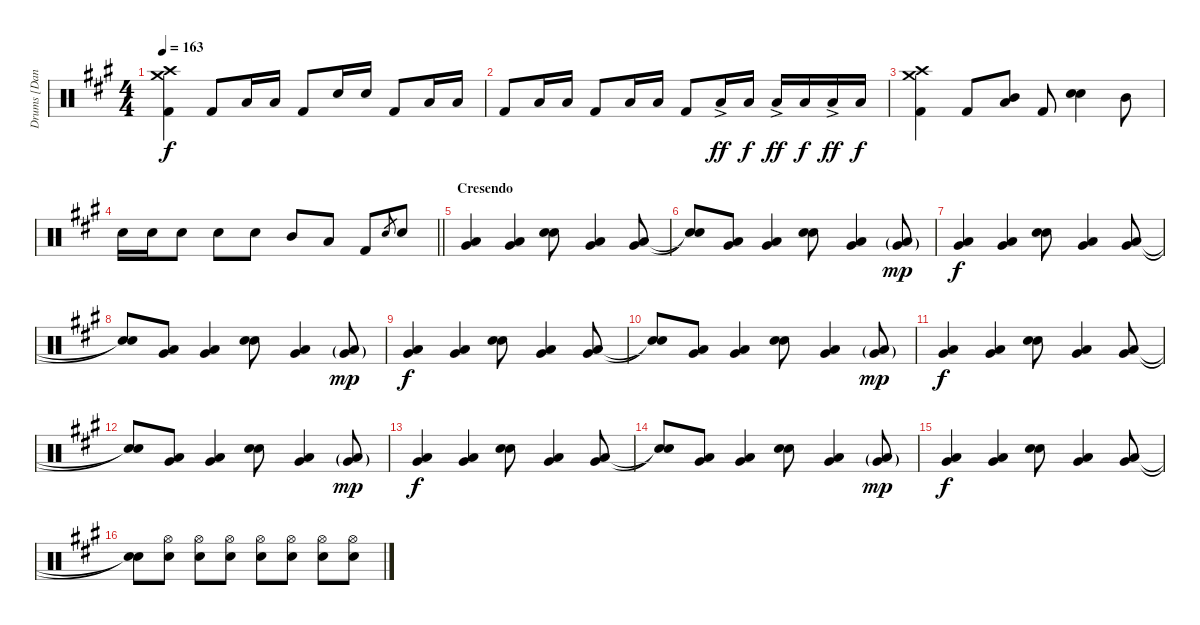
\track ("Drums [Daniel Davison]" "Drums [Dan") {instrument percussion}
\staff {score}
\articulation defaults
\ts (4 4)
\tempo 163
\clef neutral
\ks a
("Crash medium (hit)" "Crash high (hit)" "Kick (hit) 2").4{dy f} "Kick (hit) 2".8 "Low Tom (hit)".16 "Low Tom (hit)".16 "Kick (hit) 2".8 "Electric Snare (hit)".16 "Electric Snare (hit)".16 "Kick (hit) 2".8 "Low Tom (hit)".16 "Low Tom (hit)".16 |
"Kick (hit) 2".8 "Low Tom (hit)".16 "Low Tom (hit)".16 "Kick (hit) 2".8 "Low Tom (hit)".16 "Low Tom (hit)".16 "Kick (hit) 2".8 "Low Tom (hit)"{ac}.16{dy ff} "Low Tom (hit)".16{dy f} "Low Tom (hit)"{ac}.16{dy ff} "Low Tom (hit)".16{dy f} "Low Tom (hit)"{ac}.16{dy ff} "Low Tom (hit)".16{dy f} |
("Crash medium (hit)" "Crash high (hit)" "Kick (hit) 2").4 "Kick (hit) 2".8 ("Mid Tom (hit)" "Low Tom (hit)").8{bu 60} "Kick (hit) 2".8 ("Electric Snare (hit)" "Electric Snare (hit)").4{bu 60} "Mid Tom (hit)".8 |
\barLineRight lightlight "Electric Snare (hit)".16 "Electric Snare (hit)".16 "Electric Snare (hit)".8 "Electric Snare (hit)".8 "Electric Snare (hit)".8 "Mid Tom (hit)".8 "Low Tom (hit)".8 "Kick (hit) 2".8 "Electric Snare (hit)".8{gr} "Electric Snare (hit)".8
|
\section ("" "Cresendo")
("Low Tom (hit)" "Very Low Tom (hit)").4{bu 60} ("Low Tom (hit)" "Very Low Tom (hit)").4{bu 60} ("Electric Snare (hit)" "Electric Snare (hit)").8{bu 60} ("Low Tom (hit)" "Very Low Tom (hit)").4{bu 60} ("Low Tom (hit)" "Very Low Tom (hit)").8{bu 60} |
("Snare (hit)"{t} "Snare (hit)"{t}).8 ("Low Tom (hit)" "Very Low Tom (hit)").8{bu 60} ("Low Tom (hit)" "Very Low Tom (hit)").4{bu 60} ("Electric Snare (hit)" "Electric Snare (hit)").8{bu 60} ("Low Tom (hit)" "Very Low Tom (hit)").4{bu 60} ("Low Tom (hit)"{g} "Very Low Tom (hit)"{g}).8{bu 60 dy mp} |
("Low Tom (hit)" "Very Low Tom (hit)").4{bu 60 dy f} ("Low Tom (hit)" "Very Low Tom (hit)").4{bu 60} ("Electric Snare (hit)" "Electric Snare (hit)").8{bu 60} ("Low Tom (hit)" "Very Low Tom (hit)").4{bu 60} ("Low Tom (hit)" "Very Low Tom (hit)").8{bu 60} |
("Snare (hit)"{t} "Snare (hit)"{t}).8 ("Low Tom (hit)" "Very Low Tom (hit)").8{bu 60} ("Low Tom (hit)" "Very Low Tom (hit)").4{bu 60} ("Electric Snare (hit)" "Electric Snare (hit)").8{bu 60} ("Low Tom (hit)" "Very Low Tom (hit)").4{bu 60} ("Low Tom (hit)"{g} "Very Low Tom (hit)"{g}).8{bu 60 dy mp} |
("Low Tom (hit)" "Very Low Tom (hit)").4{bu 60 dy f} ("Low Tom (hit)" "Very Low Tom (hit)").4{bu 60} ("Electric Snare (hit)" "Electric Snare (hit)").8{bu 60} ("Low Tom (hit)" "Very Low Tom (hit)").4{bu 60} ("Low Tom (hit)" "Very Low Tom (hit)").8{bu 60} |
("Snare (hit)"{t} "Snare (hit)"{t}).8 ("Low Tom (hit)" "Very Low Tom (hit)").8{bu 60} ("Low Tom (hit)" "Very Low Tom (hit)").4{bu 60} ("Electric Snare (hit)" "Electric Snare (hit)").8{bu 60} ("Low Tom (hit)" "Very Low Tom (hit)").4{bu 60} ("Low Tom (hit)"{g} "Very Low Tom (hit)"{g}).8{bu 60 dy mp} |
("Low Tom (hit)" "Very Low Tom (hit)").4{bu 60 dy f} ("Low Tom (hit)" "Very Low Tom (hit)").4{bu 60} ("Electric Snare (hit)" "Electric Snare (hit)").8{bu 60} ("Low Tom (hit)" "Very Low Tom (hit)").4{bu 60} ("Low Tom (hit)" "Very Low Tom (hit)").8{bu 60} |
("Snare (hit)"{t} "Snare (hit)"{t}).8 ("Low Tom (hit)" "Very Low Tom (hit)").8{bu 60} ("Low Tom (hit)" "Very Low Tom (hit)").4{bu 60} ("Electric Snare (hit)" "Electric Snare (hit)").8{bu 60} ("Low Tom (hit)" "Very Low Tom (hit)").4{bu 60} ("Low Tom (hit)"{g} "Very Low Tom (hit)"{g}).8{bu 60 dy mp} |
("Low Tom (hit)" "Very Low Tom (hit)").4{bu 60 dy f} ("Low Tom (hit)" "Very Low Tom (hit)").4{bu 60} ("Electric Snare (hit)" "Electric Snare (hit)").8{bu 60} ("Low Tom (hit)" "Very Low Tom (hit)").4{bu 60} ("Low Tom (hit)" "Very Low Tom (hit)").8{bu 60} |
("Snare (hit)"{t} "Snare (hit)"{t}).8 ("Low Tom (hit)" "Very Low Tom (hit)").8{bu 60} ("Low Tom (hit)" "Very Low Tom (hit)").4{bu 60} ("Electric Snare (hit)" "Electric Snare (hit)").8{bu 60} ("Low Tom (hit)" "Very Low Tom (hit)").4{bu 60} ("Low Tom (hit)"{g} "Very Low Tom (hit)"{g}).8{bu 60 dy mp} |
("Low Tom (hit)" "Very Low Tom (hit)").4{bu 60 dy f} ("Low Tom (hit)" "Very Low Tom (hit)").4{bu 60} ("Electric Snare (hit)" "Electric Snare (hit)").8{bu 60} ("Low Tom (hit)" "Very Low Tom (hit)").4{bu 60} ("Low Tom (hit)" "Very Low Tom (hit)").8{bu 60} |
("Snare (hit)"{t} "Snare (hit)"{t}).8 ("Hi-Hat (open)" "Electric Snare (hit)").8{volume 7} ("Hi-Hat (open)" "Electric Snare (hit)").8{volume 14} ("Hi-Hat (open)" "Electric Snare (hit)").8 ("Hi-Hat (open)" "Electric Snare (hit)").8 ("Hi-Hat (open)" "Electric Snare (hit)").8 ("Hi-Hat (open)" "Electric Snare (hit)").8 ("Hi-Hat (open)" "Electric Snare (hit)").8
